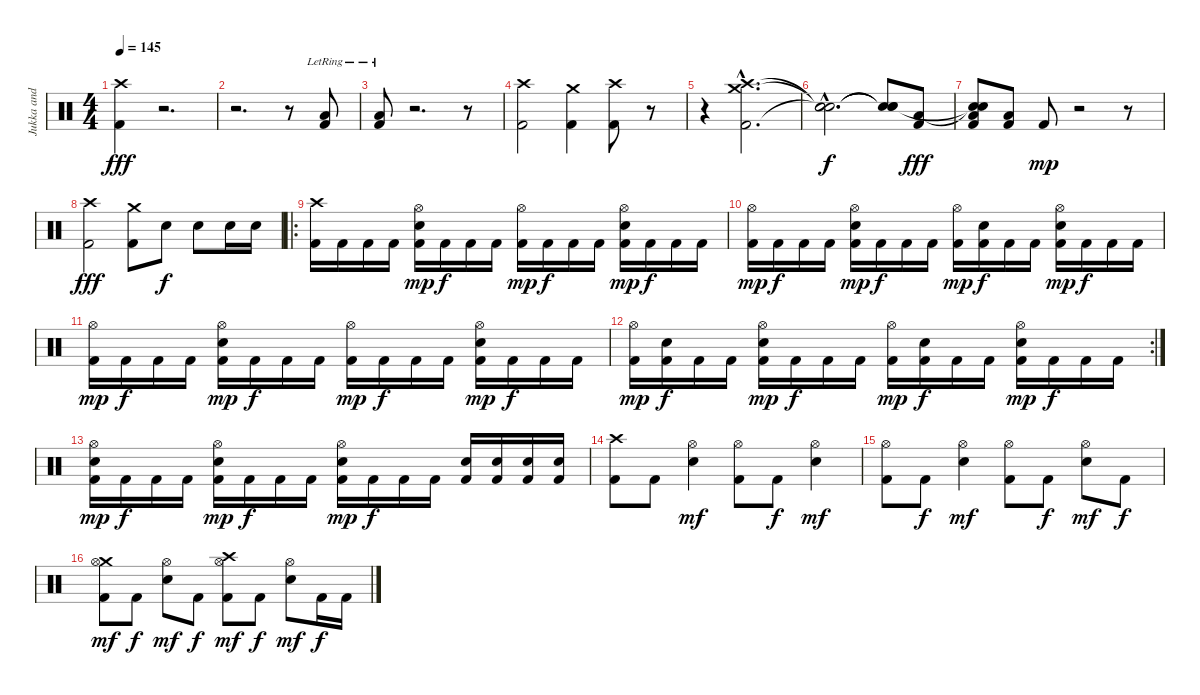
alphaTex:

\track ("Jukka and his drums" "Jukka and ") {instrument percussion}
\staff {score}
\articulation defaults
\ts (4 4)
\tempo 145
\clef neutral
\ks c
("Kick (hit) 2" "Crash high (hit)").4{dy fff} r.2{d} |
r.2{d} r.8 ("Kick (hit) 2" "Low Tom (hit)"{lr}).8 |
("Kick (hit) 2" "Low Tom (hit)"{lr}).8 r.2{d} r.8 |
("Kick (hit) 2" "Crash high (hit)").2 ("Kick (hit) 2" "Crash medium (hit)").4 ("Kick (hit) 2" "Crash high (hit)").8 r.8 |
r.4 ("Kick (hit) 2"{hac} "Crash high (hit)"{hac} "Crash medium (hit)"{hac}).2{d} |
("Snare (hit)"{hac t} "Snare (hit)"{hac t} "Snare (hit)"{hac t}).2{d dy f} ("Snare (hit)"{t} "Snare (hit)"{t} "Snare (hit)"{t}).8 ("Kick (hit) 2" "Low Tom (hit)").8{dy fff} |
("Kick (hit) 2" "Snare (hit)"{t} "Snare (hit)"{t} "Low Tom (hit)").8 ("Kick (hit) 2" "Low Tom (hit)").8 "Kick (hit) 2".8{dy mp} r.2 r.8 |
("Kick (hit) 2" "Crash high (hit)").2{dy fff} ("Kick (hit) 2" "Crash medium (hit)").8 "Snare (hit) 2".8{dy f} "Snare (hit) 2".8 "Snare (hit) 2".16 "Snare (hit) 2".16 |
\ro
("Kick (hit) 2" "Crash high (hit)").16 "Kick (hit) 2".16 "Kick (hit) 2".16 "Kick (hit) 2".16 ("Kick (hit) 2" "Hi-Hat (open)" "Snare (hit) 2").16{dy mp} "Kick (hit) 2".16{dy f} "Kick (hit) 2".16 "Kick (hit) 2".16 ("Kick (hit) 2" "Hi-Hat (open)").16{dy mp} "Kick (hit) 2".16{dy f} "Kick (hit) 2".16 "Kick (hit) 2".16 ("Kick (hit) 2" "Hi-Hat (open)" "Snare (hit) 2").16{dy mp} "Kick (hit) 2".16{dy f} "Kick (hit) 2".16 "Kick (hit) 2".16 |
("Kick (hit) 2" "Hi-Hat (open)").16{dy mp} "Kick (hit) 2".16{dy f} "Kick (hit) 2".16 "Kick (hit) 2".16 ("Kick (hit) 2" "Hi-Hat (open)" "Snare (hit) 2").16{dy mp} "Kick (hit) 2".16{dy f} "Kick (hit) 2".16 "Kick (hit) 2".16 ("Kick (hit) 2" "Hi-Hat (open)").16{dy mp} ("Kick (hit) 2" "Snare (hit) 2").16{dy f} "Kick (hit) 2".16 "Kick (hit) 2".16 ("Kick (hit) 2" "Hi-Hat (open)" "Snare (hit) 2").16{dy mp} "Kick (hit) 2".16{dy f} "Kick (hit) 2".16 "Kick (hit) 2".16 |
("Kick (hit) 2" "Hi-Hat (open)").16{dy mp} "Kick (hit) 2".16{dy f} "Kick (hit) 2".16 "Kick (hit) 2".16 ("Kick (hit) 2" "Hi-Hat (open)" "Snare (hit) 2").16{dy mp} "Kick (hit) 2".16{dy f} "Kick (hit) 2".16 "Kick (hit) 2".16 ("Kick (hit) 2" "Hi-Hat (open)").16{dy mp} "Kick (hit) 2".16{dy f} "Kick (hit) 2".16 "Kick (hit) 2".16 ("Kick (hit) 2" "Hi-Hat (open)" "Snare (hit) 2").16{dy mp} "Kick (hit) 2".16{dy f} "Kick (hit) 2".16 "Kick (hit) 2".16 |
\rc 2
("Kick (hit) 2" "Hi-Hat (open)").16{dy mp} ("Kick (hit) 2" "Snare (hit) 2").16{dy f} "Kick (hit) 2".16 "Kick (hit) 2".16 ("Kick (hit) 2" "Hi-Hat (open)" "Snare (hit) 2").16{dy mp} "Kick (hit) 2".16{dy f} "Kick (hit) 2".16 "Kick (hit) 2".16 ("Kick (hit) 2" "Hi-Hat (open)").16{dy mp} ("Kick (hit) 2" "Snare (hit) 2").16{dy f} "Kick (hit) 2".16 "Kick (hit) 2".16 ("Kick (hit) 2" "Hi-Hat (open)" "Snare (hit) 2").16{dy mp} "Kick (hit) 2".16{dy f} "Kick (hit) 2".16 "Kick (hit) 2".16 |
("Kick (hit) 2" "Hi-Hat (open)" "Snare (hit) 2").16{dy mp} "Kick (hit) 2".16{dy f} "Kick (hit) 2".16 "Kick (hit) 2".16 ("Kick (hit) 2" "Hi-Hat (open)" "Snare (hit) 2").16{dy mp} "Kick (hit) 2".16{dy f} "Kick (hit) 2".16 "Kick (hit) 2".16 ("Kick (hit) 2" "Hi-Hat (open)" "Snare (hit) 2").16{dy mp} "Kick (hit) 2".16{dy f} "Kick (hit) 2".16 "Kick (hit) 2".16 ("Kick (hit) 2" "Snare (hit) 2").16 ("Kick (hit) 2" "Snare (hit) 2").16 ("Kick (hit) 2" "Snare (hit) 2").16 ("Kick (hit) 2" "Snare (hit) 2").16 |
("Kick (hit) 2" "Crash high (hit)").8 "Kick (hit) 2".8 ("Hi-Hat (open)" "Snare (hit) 2").4{dy mf} ("Kick (hit) 2" "Hi-Hat (open)").8 "Kick (hit) 2".8{dy f} ("Hi-Hat (open)" "Snare (hit) 2").4{dy mf} |
("Kick (hit) 2" "Hi-Hat (open)").8 "Kick (hit) 2".8{dy f} ("Hi-Hat (open)" "Snare (hit) 2").4{dy mf} ("Kick (hit) 2" "Hi-Hat (open)").8 "Kick (hit) 2".8{dy f} ("Hi-Hat (open)" "Snare (hit) 2").8{dy mf} "Kick (hit) 2".8{dy f} |
("Kick (hit) 2" "Crash medium (hit)" "Hi-Hat (open)").8{dy mf} "Kick (hit) 2".8{dy f} ("Hi-Hat (open)" "Snare (hit) 2").8{dy mf} "Kick (hit) 2".8{dy f} ("Kick (hit) 2" "Crash high (hit)" "Hi-Hat (open)").8{dy mf} "Kick (hit) 2".8{dy f} ("Hi-Hat (open)" "Snare (hit) 2").8{dy mf} "Kick (hit) 2".16{dy f} "Kick (hit) 2".16
